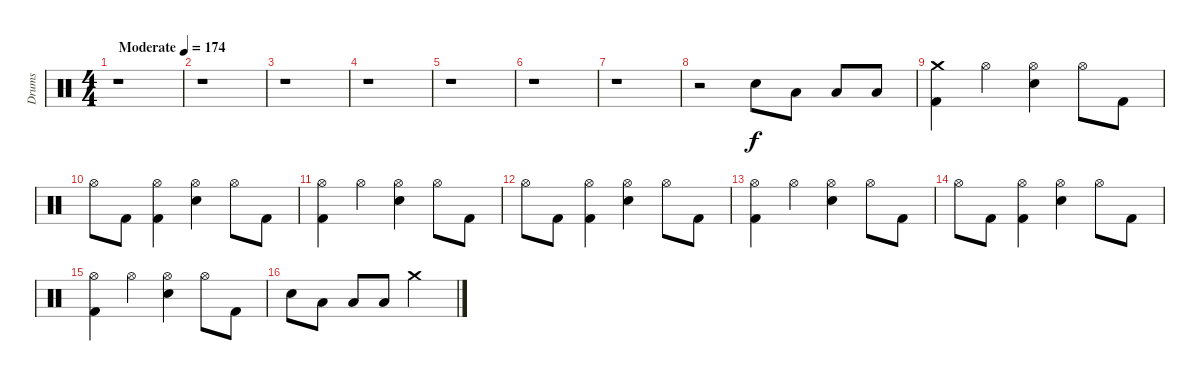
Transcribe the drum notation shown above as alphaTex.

\track ("Drums" "Drums") {instrument percussion}
\staff {score}
\articulation defaults
\ts (4 4)
\tempo (174 "Moderate")
\tempo 130
\tempo (174 "Moderate")
\clef neutral
\ks c
r.1{dy f} |
r.1 |
r.1 |
r.1 |
r.1 |
r.1 |
r.1 |
r.2 "Snare (hit) 2".8 "Low Tom (hit)".8 "Low Tom (hit)".8 "Low Floor Tom (hit)".8 |
("Crash medium (hit)" "Kick (hit) 2").4 "Hi-Hat (open)".4 ("Hi-Hat (open)" "Snare (hit) 2").4 "Hi-Hat (open)".8 "Kick (hit) 2".8 |
"Hi-Hat (open)".8 "Kick (hit) 2".8 ("Hi-Hat (open)" "Kick (hit) 2").4 ("Hi-Hat (open)" "Snare (hit) 2").4 "Hi-Hat (open)".8 "Kick (hit) 2".8 |
("Hi-Hat (open)" "Kick (hit) 2").4 "Hi-Hat (open)".4 ("Hi-Hat (open)" "Snare (hit) 2").4 "Hi-Hat (open)".8 "Kick (hit) 2".8 |
"Hi-Hat (open)".8 "Kick (hit) 2".8 ("Hi-Hat (open)" "Kick (hit) 2").4 ("Hi-Hat (open)" "Snare (hit) 2").4 "Hi-Hat (open)".8 "Kick (hit) 2".8 |
("Hi-Hat (open)" "Kick (hit) 2").4 "Hi-Hat (open)".4 ("Hi-Hat (open)" "Snare (hit) 2").4 "Hi-Hat (open)".8 "Kick (hit) 2".8 |
"Hi-Hat (open)".8 "Kick (hit) 2".8 ("Hi-Hat (open)" "Kick (hit) 2").4 ("Hi-Hat (open)" "Snare (hit) 2").4 "Hi-Hat (open)".8 "Kick (hit) 2".8 |
("Hi-Hat (open)" "Kick (hit) 2").4 "Hi-Hat (open)".4 ("Hi-Hat (open)" "Snare (hit) 2").4 "Hi-Hat (open)".8 "Kick (hit) 2".8 |
"Snare (hit) 2".8 "Low Tom (hit)".8 "Low Tom (hit)".8 "Low Floor Tom (hit)".8 "Crash medium (hit)".2
